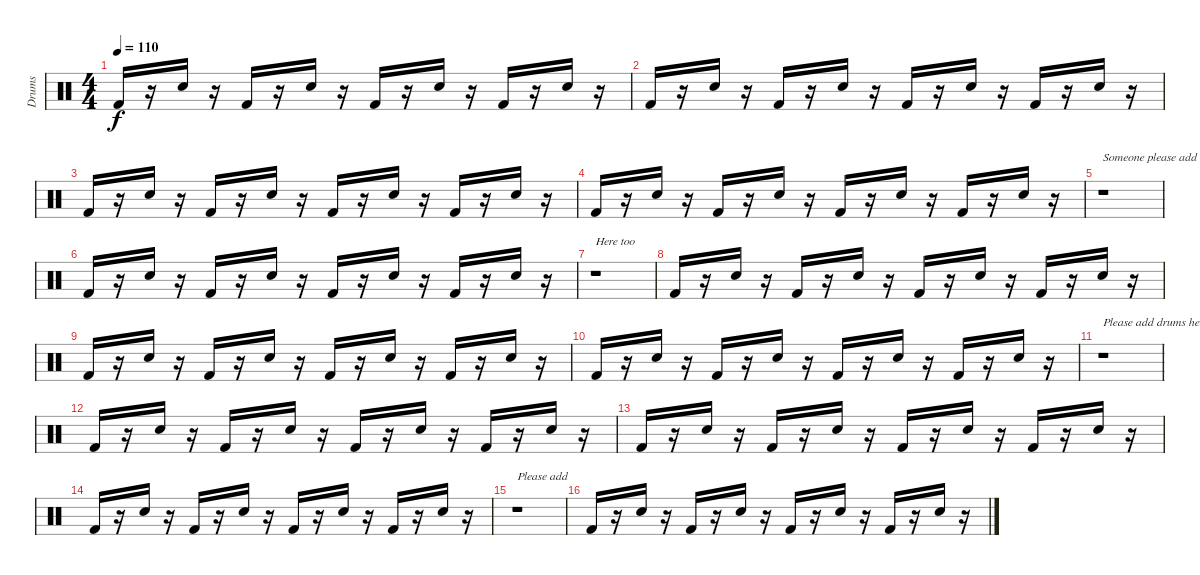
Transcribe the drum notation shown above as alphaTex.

\track ("Drums" "Drums") {instrument percussion}
\staff {score}
\articulation defaults
\ts (4 4)
\tempo 110
\clef neutral
\ks c "Kick (hit) 2".16{dy f}
r.16 "Snare (hit) 2".16 r.16 "Kick (hit) 2".16 r.16 "Snare (hit) 2".16 r.16 "Kick (hit) 2".16 r.16 "Snare (hit) 2".16 r.16 "Kick (hit) 2".16 r.16 "Snare (hit) 2".16 r.16 |
"Kick (hit) 2".16 r.16 "Snare (hit) 2".16 r.16 "Kick (hit) 2".16 r.16 "Snare (hit) 2".16 r.16 "Kick (hit) 2".16 r.16 "Snare (hit) 2".16 r.16 "Kick (hit) 2".16 r.16 "Snare (hit) 2".16 r.16 |
"Kick (hit) 2".16 r.16 "Snare (hit) 2".16 r.16 "Kick (hit) 2".16 r.16 "Snare (hit) 2".16 r.16 "Kick (hit) 2".16 r.16 "Snare (hit) 2".16 r.16 "Kick (hit) 2".16 r.16 "Snare (hit) 2".16 r.16 |
"Kick (hit) 2".16 r.16 "Snare (hit) 2".16 r.16 "Kick (hit) 2".16 r.16 "Snare (hit) 2".16 r.16 "Kick (hit) 2".16 r.16 "Snare (hit) 2".16 r.16 "Kick (hit) 2".16 r.16 "Snare (hit) 2".16 r.16 |
r.1{txt "Someone please add drums to these parts"} |
"Kick (hit) 2".16 r.16 "Snare (hit) 2".16 r.16 "Kick (hit) 2".16 r.16 "Snare (hit) 2".16 r.16 "Kick (hit) 2".16 r.16 "Snare (hit) 2".16 r.16 "Kick (hit) 2".16 r.16 "Snare (hit) 2".16 r.16 |
r.1{txt "Here too"} |
"Kick (hit) 2".16 r.16 "Snare (hit) 2".16 r.16 "Kick (hit) 2".16 r.16 "Snare (hit) 2".16 r.16 "Kick (hit) 2".16 r.16 "Snare (hit) 2".16 r.16 "Kick (hit) 2".16 r.16 "Snare (hit) 2".16 r.16 |
"Kick (hit) 2".16 r.16 "Snare (hit) 2".16 r.16 "Kick (hit) 2".16 r.16 "Snare (hit) 2".16 r.16 "Kick (hit) 2".16 r.16 "Snare (hit) 2".16 r.16 "Kick (hit) 2".16 r.16 "Snare (hit) 2".16 r.16 |
"Kick (hit) 2".16 r.16 "Snare (hit) 2".16 r.16 "Kick (hit) 2".16 r.16 "Snare (hit) 2".16 r.16 "Kick (hit) 2".16 r.16 "Snare (hit) 2".16 r.16 "Kick (hit) 2".16 r.16 "Snare (hit) 2".16 r.16 |
r.1{txt "Please add drums here"} |
"Kick (hit) 2".16 r.16 "Snare (hit) 2".16 r.16 "Kick (hit) 2".16 r.16 "Snare (hit) 2".16 r.16 "Kick (hit) 2".16 r.16 "Snare (hit) 2".16 r.16 "Kick (hit) 2".16 r.16 "Snare (hit) 2".16 r.16 |
"Kick (hit) 2".16 r.16 "Snare (hit) 2".16 r.16 "Kick (hit) 2".16 r.16 "Snare (hit) 2".16 r.16 "Kick (hit) 2".16 r.16 "Snare (hit) 2".16 r.16 "Kick (hit) 2".16 r.16 "Snare (hit) 2".16 r.16 |
"Kick (hit) 2".16 r.16 "Snare (hit) 2".16 r.16 "Kick (hit) 2".16 r.16 "Snare (hit) 2".16 r.16 "Kick (hit) 2".16 r.16 "Snare (hit) 2".16 r.16 "Kick (hit) 2".16 r.16 "Snare (hit) 2".16 r.16 |
r.1{txt "Please add"} |
"Kick (hit) 2".16 r.16 "Snare (hit) 2".16 r.16 "Kick (hit) 2".16 r.16 "Snare (hit) 2".16 r.16 "Kick (hit) 2".16 r.16 "Snare (hit) 2".16 r.16 "Kick (hit) 2".16 r.16 "Snare (hit) 2".16 r.16
